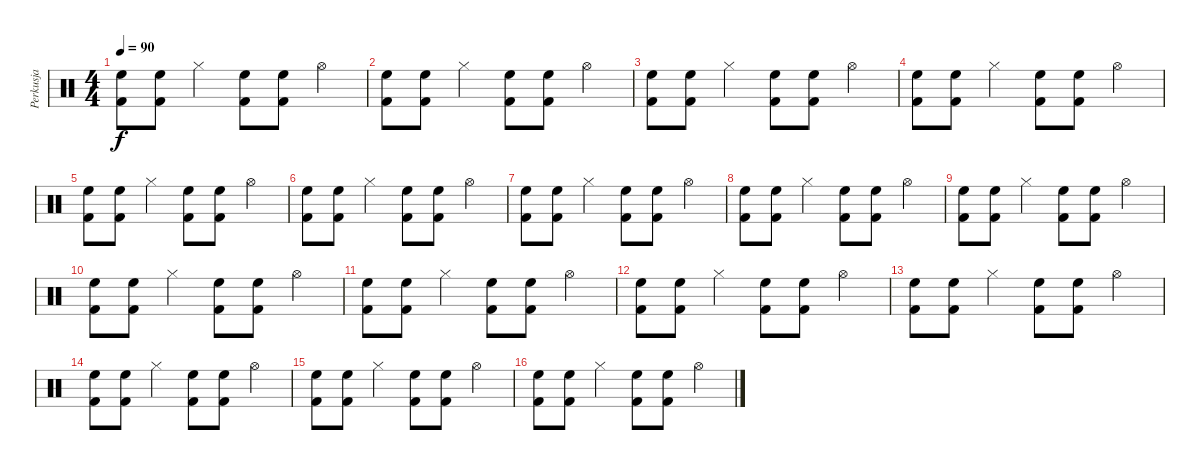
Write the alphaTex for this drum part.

\track ("Perkusja" "Perkusja") {instrument percussion}
\staff {score}
\articulation defaults
\ts (4 4)
\tempo 90
\clef neutral
\ks c
("Kick (hit) 2" "High Floor Tom (hit)").8{dy f} ("Kick (hit) 2" "High Floor Tom (hit)").8 "Hi-Hat (closed)".4 ("Kick (hit) 2" "High Floor Tom (hit)").8 ("Kick (hit) 2" "High Floor Tom (hit)").8 "Hi-Hat (open)".4 |
("Kick (hit) 2" "High Floor Tom (hit)").8 ("Kick (hit) 2" "High Floor Tom (hit)").8 "Hi-Hat (closed)".4 ("Kick (hit) 2" "High Floor Tom (hit)").8 ("Kick (hit) 2" "High Floor Tom (hit)").8 "Hi-Hat (open)".4 |
("Kick (hit) 2" "High Floor Tom (hit)").8 ("Kick (hit) 2" "High Floor Tom (hit)").8 "Hi-Hat (closed)".4 ("Kick (hit) 2" "High Floor Tom (hit)").8 ("Kick (hit) 2" "High Floor Tom (hit)").8 "Hi-Hat (open)".4 |
("Kick (hit) 2" "High Floor Tom (hit)").8 ("Kick (hit) 2" "High Floor Tom (hit)").8 "Hi-Hat (closed)".4 ("Kick (hit) 2" "High Floor Tom (hit)").8 ("Kick (hit) 2" "High Floor Tom (hit)").8 "Hi-Hat (open)".4 |
("Kick (hit) 2" "High Floor Tom (hit)").8 ("Kick (hit) 2" "High Floor Tom (hit)").8 "Hi-Hat (closed)".4 ("Kick (hit) 2" "High Floor Tom (hit)").8 ("Kick (hit) 2" "High Floor Tom (hit)").8 "Hi-Hat (open)".4 |
("Kick (hit) 2" "High Floor Tom (hit)").8 ("Kick (hit) 2" "High Floor Tom (hit)").8 "Hi-Hat (closed)".4 ("Kick (hit) 2" "High Floor Tom (hit)").8 ("Kick (hit) 2" "High Floor Tom (hit)").8 "Hi-Hat (open)".4 |
("Kick (hit) 2" "High Floor Tom (hit)").8 ("Kick (hit) 2" "High Floor Tom (hit)").8 "Hi-Hat (closed)".4 ("Kick (hit) 2" "High Floor Tom (hit)").8 ("Kick (hit) 2" "High Floor Tom (hit)").8 "Hi-Hat (open)".4 |
("Kick (hit) 2" "High Floor Tom (hit)").8 ("Kick (hit) 2" "High Floor Tom (hit)").8 "Hi-Hat (closed)".4 ("Kick (hit) 2" "High Floor Tom (hit)").8 ("Kick (hit) 2" "High Floor Tom (hit)").8 "Hi-Hat (open)".4 |
("Kick (hit) 2" "High Floor Tom (hit)").8 ("Kick (hit) 2" "High Floor Tom (hit)").8 "Hi-Hat (closed)".4 ("Kick (hit) 2" "High Floor Tom (hit)").8 ("Kick (hit) 2" "High Floor Tom (hit)").8 "Hi-Hat (open)".4 |
("Kick (hit) 2" "High Floor Tom (hit)").8 ("Kick (hit) 2" "High Floor Tom (hit)").8 "Hi-Hat (closed)".4 ("Kick (hit) 2" "High Floor Tom (hit)").8 ("Kick (hit) 2" "High Floor Tom (hit)").8 "Hi-Hat (open)".4 |
("Kick (hit) 2" "High Floor Tom (hit)").8 ("Kick (hit) 2" "High Floor Tom (hit)").8 "Hi-Hat (closed)".4 ("Kick (hit) 2" "High Floor Tom (hit)").8 ("Kick (hit) 2" "High Floor Tom (hit)").8 "Hi-Hat (open)".4 |
("Kick (hit) 2" "High Floor Tom (hit)").8 ("Kick (hit) 2" "High Floor Tom (hit)").8 "Hi-Hat (closed)".4 ("Kick (hit) 2" "High Floor Tom (hit)").8 ("Kick (hit) 2" "High Floor Tom (hit)").8 "Hi-Hat (open)".4 |
("Kick (hit) 2" "High Floor Tom (hit)").8 ("Kick (hit) 2" "High Floor Tom (hit)").8 "Hi-Hat (closed)".4 ("Kick (hit) 2" "High Floor Tom (hit)").8 ("Kick (hit) 2" "High Floor Tom (hit)").8 "Hi-Hat (open)".4 |
("Kick (hit) 2" "High Floor Tom (hit)").8 ("Kick (hit) 2" "High Floor Tom (hit)").8 "Hi-Hat (closed)".4 ("Kick (hit) 2" "High Floor Tom (hit)").8 ("Kick (hit) 2" "High Floor Tom (hit)").8 "Hi-Hat (open)".4 |
("Kick (hit) 2" "High Floor Tom (hit)").8 ("Kick (hit) 2" "High Floor Tom (hit)").8 "Hi-Hat (closed)".4 ("Kick (hit) 2" "High Floor Tom (hit)").8 ("Kick (hit) 2" "High Floor Tom (hit)").8 "Hi-Hat (open)".4 |
("Kick (hit) 2" "High Floor Tom (hit)").8 ("Kick (hit) 2" "High Floor Tom (hit)").8 "Hi-Hat (closed)".4 ("Kick (hit) 2" "High Floor Tom (hit)").8 ("Kick (hit) 2" "High Floor Tom (hit)").8 "Hi-Hat (open)".4
